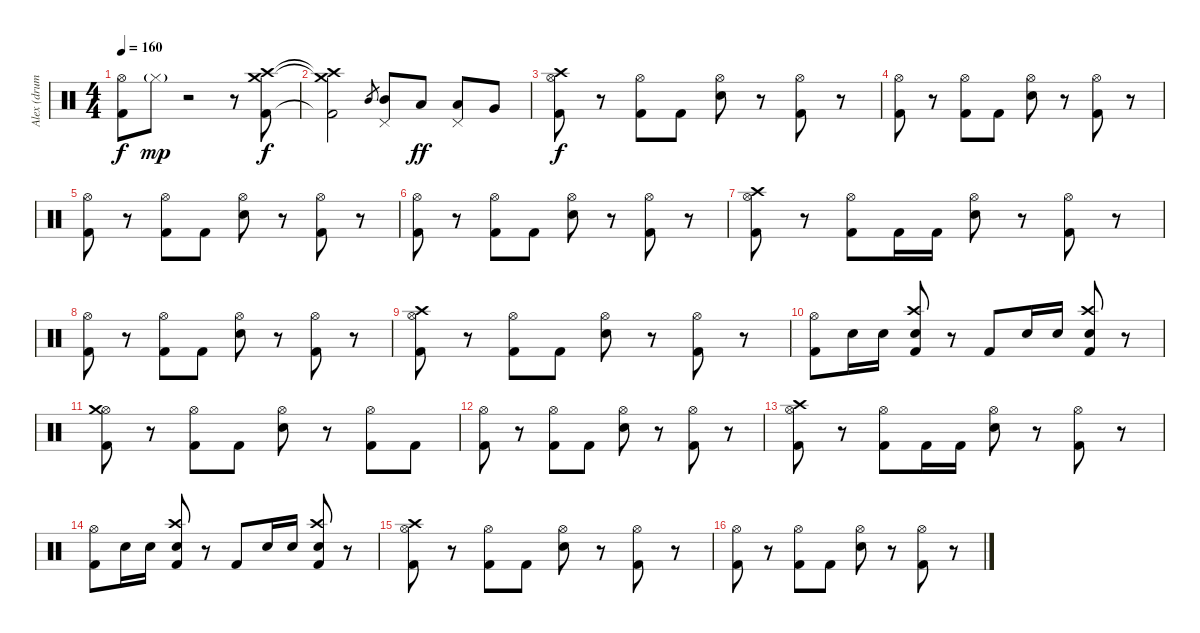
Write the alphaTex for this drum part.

\track ("Alex (drums)" "Alex (drum") {instrument percussion}
\staff {score}
\articulation defaults
\ts (4 4)
\tempo 160
\clef neutral
\ks c
("Hi-Hat (open)" "Kick (hit) 2").8{dy f} "Hi-Hat (closed)"{g}.8{dy mp} r.2 r.8 ("Kick (hit) 2" "Crash medium (hit)" "Crash high (hit)").8{dy f} |
("Kick (hit) 2"{t} "Crash medium (hit)"{t} "Crash high (hit)"{t}).2 "Mid Tom (hit)".8{gr} ("Pedal Hi-Hat (hit)" "Mid Tom (hit)").8 "Low Tom (hit)".8{dy ff} ("Pedal Hi-Hat (hit)" "Low Tom (hit)").8 "Very Low Tom (hit)".8 |
("Hi-Hat (open)" "Kick (hit) 2" "Crash high (hit)").8{dy f} r.8 ("Hi-Hat (open)" "Kick (hit) 2").8 "Kick (hit) 2".8 ("Hi-Hat (open)" "Snare (hit) 2").8 r.8 ("Hi-Hat (open)" "Kick (hit) 2").8 r.8 |
("Hi-Hat (open)" "Kick (hit) 2").8 r.8 ("Hi-Hat (open)" "Kick (hit) 2").8 "Kick (hit) 2".8 ("Hi-Hat (open)" "Snare (hit) 2").8 r.8 ("Hi-Hat (open)" "Kick (hit) 2").8 r.8 |
("Hi-Hat (open)" "Kick (hit) 2").8 r.8 ("Hi-Hat (open)" "Kick (hit) 2").8 "Kick (hit) 2".8 ("Hi-Hat (open)" "Snare (hit) 2").8 r.8 ("Hi-Hat (open)" "Kick (hit) 2").8 r.8 |
("Hi-Hat (open)" "Kick (hit) 2").8 r.8 ("Hi-Hat (open)" "Kick (hit) 2").8 "Kick (hit) 2".8 ("Hi-Hat (open)" "Snare (hit) 2").8 r.8 ("Hi-Hat (open)" "Kick (hit) 2").8 r.8 |
("Hi-Hat (open)" "Kick (hit) 2" "Crash high (hit)").8 r.8 ("Hi-Hat (open)" "Kick (hit) 2").8 "Kick (hit) 2".16 "Kick (hit) 2".16 ("Hi-Hat (open)" "Snare (hit) 2").8 r.8 ("Hi-Hat (open)" "Kick (hit) 2").8 r.8 |
("Hi-Hat (open)" "Kick (hit) 2").8 r.8 ("Hi-Hat (open)" "Kick (hit) 2").8 "Kick (hit) 2".8 ("Hi-Hat (open)" "Snare (hit) 2").8 r.8 ("Hi-Hat (open)" "Kick (hit) 2").8 r.8 |
("Hi-Hat (open)" "Kick (hit) 2" "Crash high (hit)").8 r.8 ("Hi-Hat (open)" "Kick (hit) 2").8 "Kick (hit) 2".8 ("Hi-Hat (open)" "Snare (hit) 2").8 r.8 ("Hi-Hat (open)" "Kick (hit) 2").8 r.8 |
("Hi-Hat (open)" "Kick (hit) 2").8 "Snare (hit) 2".16 "Snare (hit) 2".16 ("Snare (hit) 2" "Kick (hit) 2" "Crash high (hit)").8 r.8 "Kick (hit) 2".8 "Snare (hit) 2".16 "Snare (hit) 2".16 ("Snare (hit) 2" "Kick (hit) 2" "Crash high (hit)").8 r.8 |
("Hi-Hat (open)" "Kick (hit) 2" "Crash medium (hit)").8 r.8 ("Hi-Hat (open)" "Kick (hit) 2").8 "Kick (hit) 2".8 ("Hi-Hat (open)" "Snare (hit) 2").8 r.8 ("Hi-Hat (open)" "Kick (hit) 2").8 "Kick (hit) 2".8 |
("Hi-Hat (open)" "Kick (hit) 2").8 r.8 ("Hi-Hat (open)" "Kick (hit) 2").8 "Kick (hit) 2".8 ("Hi-Hat (open)" "Snare (hit) 2").8 r.8 ("Hi-Hat (open)" "Kick (hit) 2").8 r.8 |
("Hi-Hat (open)" "Kick (hit) 2" "Crash high (hit)").8 r.8 ("Hi-Hat (open)" "Kick (hit) 2").8 "Kick (hit) 2".16 "Kick (hit) 2".16 ("Hi-Hat (open)" "Snare (hit) 2").8 r.8 ("Hi-Hat (open)" "Kick (hit) 2").8 r.8 |
("Hi-Hat (open)" "Kick (hit) 2").8 "Snare (hit) 2".16 "Snare (hit) 2".16 ("Snare (hit) 2" "Kick (hit) 2" "Crash high (hit)").8 r.8 "Kick (hit) 2".8 "Snare (hit) 2".16 "Snare (hit) 2".16 ("Snare (hit) 2" "Kick (hit) 2" "Crash high (hit)").8 r.8 |
("Hi-Hat (open)" "Kick (hit) 2" "Crash high (hit)").8 r.8 ("Hi-Hat (open)" "Kick (hit) 2").8 "Kick (hit) 2".8 ("Hi-Hat (open)" "Snare (hit) 2").8 r.8 ("Hi-Hat (open)" "Kick (hit) 2").8 r.8 |
("Hi-Hat (open)" "Kick (hit) 2").8 r.8 ("Hi-Hat (open)" "Kick (hit) 2").8 "Kick (hit) 2".8 ("Hi-Hat (open)" "Snare (hit) 2").8 r.8 ("Hi-Hat (open)" "Kick (hit) 2").8 r.8
